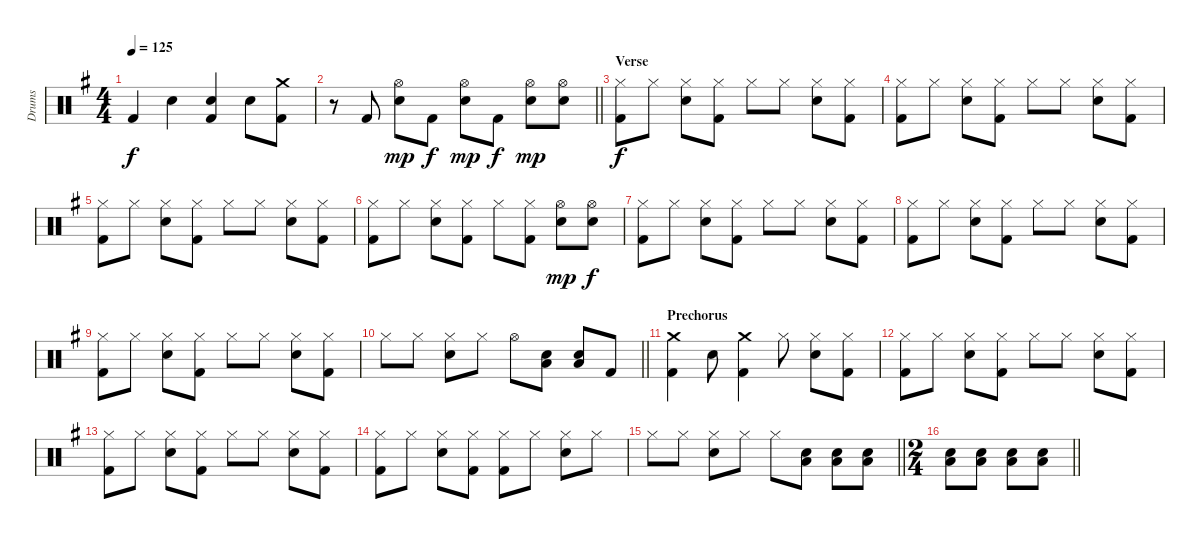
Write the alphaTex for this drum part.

\track ("Drums" "Drums") {instrument percussion}
\staff {score}
\articulation defaults
\ts (4 4)
\tempo 125
\clef neutral
\ks eminor "Kick (hit) 2".4{dy f} "Electric Snare (hit)".4
("Electric Snare (hit)" "Kick (hit) 2").4 "Electric Snare (hit)".8 ("Crash medium (hit)" "Kick (hit) 2").8 |
\barLineRight lightlight
r.8 "Kick (hit) 2".8 ("Hi-Hat (open)" "Electric Snare (hit)").8{dy mp} "Kick (hit) 2".8{dy f} ("Hi-Hat (open)" "Electric Snare (hit)").8{dy mp} "Kick (hit) 2".8{dy f} ("Hi-Hat (open)" "Electric Snare (hit)").8{dy mp} ("Hi-Hat (open)" "Electric Snare (hit)").8 |
\section ("" "Verse")
("Hi-Hat (closed)" "Kick (hit) 2").8{dy f} "Hi-Hat (closed)".8 ("Hi-Hat (closed)" "Electric Snare (hit)").8 ("Hi-Hat (closed)" "Kick (hit) 2").8 "Hi-Hat (closed)".8 "Hi-Hat (closed)".8 ("Hi-Hat (closed)" "Electric Snare (hit)").8 ("Hi-Hat (closed)" "Kick (hit) 2").8 |
("Hi-Hat (closed)" "Kick (hit) 2").8 "Hi-Hat (closed)".8 ("Hi-Hat (closed)" "Electric Snare (hit)").8 ("Hi-Hat (closed)" "Kick (hit) 2").8 "Hi-Hat (closed)".8 "Hi-Hat (closed)".8 ("Hi-Hat (closed)" "Electric Snare (hit)").8 ("Hi-Hat (closed)" "Kick (hit) 2").8 |
("Hi-Hat (closed)" "Kick (hit) 2").8 "Hi-Hat (closed)".8 ("Hi-Hat (closed)" "Electric Snare (hit)").8 ("Hi-Hat (closed)" "Kick (hit) 2").8 "Hi-Hat (closed)".8 "Hi-Hat (closed)".8 ("Hi-Hat (closed)" "Electric Snare (hit)").8 ("Hi-Hat (closed)" "Kick (hit) 2").8 |
("Hi-Hat (closed)" "Kick (hit) 2").8 "Hi-Hat (closed)".8 ("Hi-Hat (closed)" "Electric Snare (hit)").8 ("Hi-Hat (closed)" "Kick (hit) 2").8 "Hi-Hat (closed)".8 ("Hi-Hat (closed)" "Kick (hit) 2").8 ("Hi-Hat (open)" "Electric Snare (hit)").8{dy mp} ("Hi-Hat (open)" "Electric Snare (hit)").8{dy f} |
("Hi-Hat (closed)" "Kick (hit) 2").8 "Hi-Hat (closed)".8 ("Hi-Hat (closed)" "Electric Snare (hit)").8 ("Hi-Hat (closed)" "Kick (hit) 2").8 "Hi-Hat (closed)".8 "Hi-Hat (closed)".8 ("Hi-Hat (closed)" "Electric Snare (hit)").8 ("Hi-Hat (closed)" "Kick (hit) 2").8 |
("Hi-Hat (closed)" "Kick (hit) 2").8 "Hi-Hat (closed)".8 ("Hi-Hat (closed)" "Electric Snare (hit)").8 ("Hi-Hat (closed)" "Kick (hit) 2").8 "Hi-Hat (closed)".8 "Hi-Hat (closed)".8 ("Hi-Hat (closed)" "Electric Snare (hit)").8 ("Hi-Hat (closed)" "Kick (hit) 2").8 |
("Hi-Hat (closed)" "Kick (hit) 2").8 "Hi-Hat (closed)".8 ("Hi-Hat (closed)" "Electric Snare (hit)").8 ("Hi-Hat (closed)" "Kick (hit) 2").8 "Hi-Hat (closed)".8 "Hi-Hat (closed)".8 ("Hi-Hat (closed)" "Electric Snare (hit)").8 ("Hi-Hat (closed)" "Kick (hit) 2").8 |
\barLineRight lightlight "Hi-Hat (closed)".8 "Hi-Hat (closed)".8
("Hi-Hat (closed)" "Electric Snare (hit)").8 "Hi-Hat (closed)".8 "Hi-Hat (open)".8 ("Electric Snare (hit)" "Low Tom (hit)").8 ("Electric Snare (hit)" "Low Tom (hit)").8 "Kick (hit) 2".8 |
\section ("" "Prechorus")
("Crash medium (hit)" "Kick (hit) 2").4 "Electric Snare (hit)".8 ("Crash medium (hit)" "Kick (hit) 2").4 "Hi-Hat (closed)".8 ("Hi-Hat (closed)" "Electric Snare (hit)").8 ("Hi-Hat (closed)" "Kick (hit) 2").8 |
("Hi-Hat (closed)" "Kick (hit) 2").8 "Hi-Hat (closed)".8 ("Hi-Hat (closed)" "Electric Snare (hit)").8 ("Hi-Hat (closed)" "Kick (hit) 2").8 "Hi-Hat (closed)".8 "Hi-Hat (closed)".8 ("Hi-Hat (closed)" "Electric Snare (hit)").8 ("Hi-Hat (closed)" "Kick (hit) 2").8 |
("Hi-Hat (closed)" "Kick (hit) 2").8 "Hi-Hat (closed)".8 ("Hi-Hat (closed)" "Electric Snare (hit)").8 ("Hi-Hat (closed)" "Kick (hit) 2").8 "Hi-Hat (closed)".8 "Hi-Hat (closed)".8 ("Hi-Hat (closed)" "Electric Snare (hit)").8 ("Hi-Hat (closed)" "Kick (hit) 2").8 |
("Hi-Hat (closed)" "Kick (hit) 2").8 "Hi-Hat (closed)".8 ("Hi-Hat (closed)" "Electric Snare (hit)").8 ("Hi-Hat (closed)" "Kick (hit) 2").8 ("Hi-Hat (closed)" "Kick (hit) 2").8 "Hi-Hat (closed)".8 ("Hi-Hat (closed)" "Electric Snare (hit)").8 "Hi-Hat (closed)".8 |
\barLineRight lightlight "Hi-Hat (closed)".8 "Hi-Hat (closed)".8
("Hi-Hat (closed)" "Electric Snare (hit)").8 "Hi-Hat (closed)".8 "Hi-Hat (closed)".8 ("Electric Snare (hit)" "Low Tom (hit)").8 ("Electric Snare (hit)" "Low Tom (hit)").8 ("Electric Snare (hit)" "Low Tom (hit)").8 |
\ts (2 4)
\barLineRight lightlight
("Electric Snare (hit)" "Low Tom (hit)").8 ("Electric Snare (hit)" "Low Tom (hit)").8 ("Electric Snare (hit)" "Low Tom (hit)").8 ("Electric Snare (hit)" "Low Tom (hit)").8
